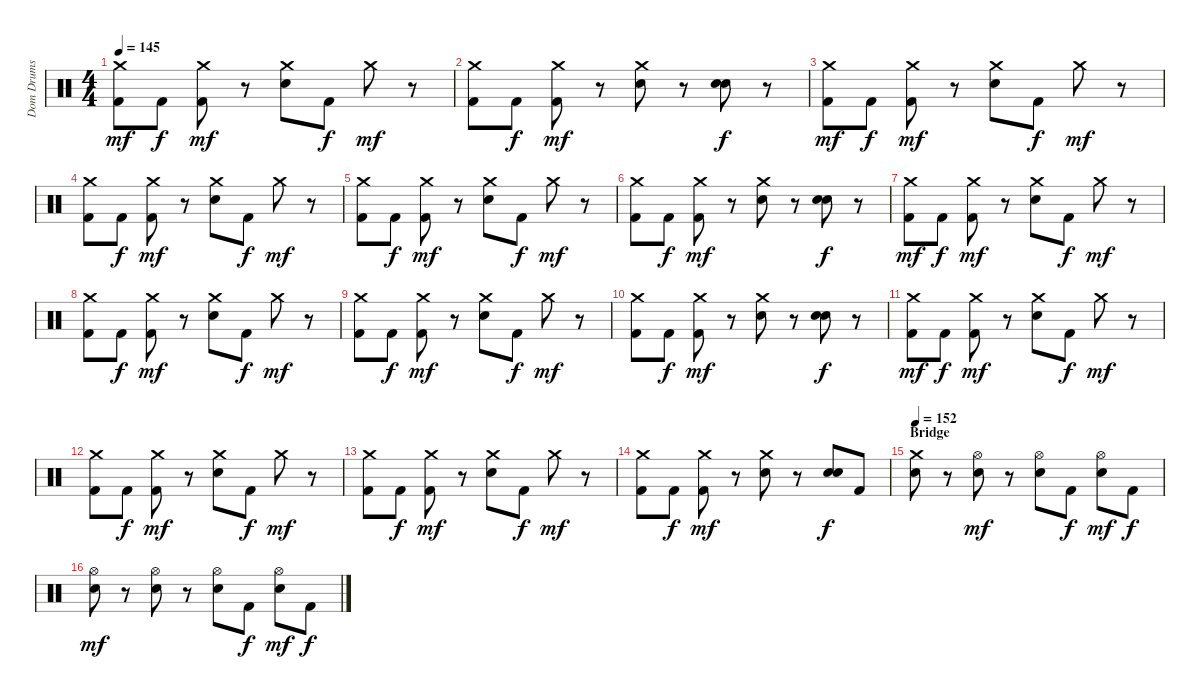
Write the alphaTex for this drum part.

\track ("Dom Drums" "Dom Drums") {instrument percussion}
\staff {score}
\articulation defaults
\ts (4 4)
\tempo 145
\clef neutral
\ks c
("Crash medium (hit)" "Kick (hit) 2").8{dy mf} "Kick (hit) 2".8{dy f} ("Crash medium (hit)" "Kick (hit) 2").8{dy mf} r.8 ("Crash medium (hit)" "Snare (hit) 2").8 "Kick (hit) 2".8{dy f} "Crash medium (hit)".8{dy mf} r.8 |
("Crash medium (hit)" "Kick (hit) 2").8 "Kick (hit) 2".8{dy f} ("Crash medium (hit)" "Kick (hit) 2").8{dy mf} r.8 ("Crash medium (hit)" "Snare (hit) 2").8 r.8 ("Snare (hit) 2" "Snare (hit) 2").8{dy f} r.8 |
("Crash medium (hit)" "Kick (hit) 2").8{dy mf} "Kick (hit) 2".8{dy f} ("Crash medium (hit)" "Kick (hit) 2").8{dy mf} r.8 ("Crash medium (hit)" "Snare (hit) 2").8 "Kick (hit) 2".8{dy f} "Crash medium (hit)".8{dy mf} r.8 |
("Crash medium (hit)" "Kick (hit) 2").8 "Kick (hit) 2".8{dy f} ("Crash medium (hit)" "Kick (hit) 2").8{dy mf} r.8 ("Crash medium (hit)" "Snare (hit) 2").8 "Kick (hit) 2".8{dy f} "Crash medium (hit)".8{dy mf} r.8 |
("Crash medium (hit)" "Kick (hit) 2").8 "Kick (hit) 2".8{dy f} ("Crash medium (hit)" "Kick (hit) 2").8{dy mf} r.8 ("Crash medium (hit)" "Snare (hit) 2").8 "Kick (hit) 2".8{dy f} "Crash medium (hit)".8{dy mf} r.8 |
("Crash medium (hit)" "Kick (hit) 2").8 "Kick (hit) 2".8{dy f} ("Crash medium (hit)" "Kick (hit) 2").8{dy mf} r.8 ("Crash medium (hit)" "Snare (hit) 2").8 r.8 ("Snare (hit) 2" "Snare (hit) 2").8{dy f} r.8 |
("Crash medium (hit)" "Kick (hit) 2").8{dy mf} "Kick (hit) 2".8{dy f} ("Crash medium (hit)" "Kick (hit) 2").8{dy mf} r.8 ("Crash medium (hit)" "Snare (hit) 2").8 "Kick (hit) 2".8{dy f} "Crash medium (hit)".8{dy mf} r.8 |
("Crash medium (hit)" "Kick (hit) 2").8 "Kick (hit) 2".8{dy f} ("Crash medium (hit)" "Kick (hit) 2").8{dy mf} r.8 ("Crash medium (hit)" "Snare (hit) 2").8 "Kick (hit) 2".8{dy f} "Crash medium (hit)".8{dy mf} r.8 |
("Crash medium (hit)" "Kick (hit) 2").8 "Kick (hit) 2".8{dy f} ("Crash medium (hit)" "Kick (hit) 2").8{dy mf} r.8 ("Crash medium (hit)" "Snare (hit) 2").8 "Kick (hit) 2".8{dy f} "Crash medium (hit)".8{dy mf} r.8 |
("Crash medium (hit)" "Kick (hit) 2").8 "Kick (hit) 2".8{dy f} ("Crash medium (hit)" "Kick (hit) 2").8{dy mf} r.8 ("Crash medium (hit)" "Snare (hit) 2").8 r.8 ("Snare (hit) 2" "Snare (hit) 2").8{dy f} r.8 |
("Crash medium (hit)" "Kick (hit) 2").8{dy mf} "Kick (hit) 2".8{dy f} ("Crash medium (hit)" "Kick (hit) 2").8{dy mf} r.8 ("Crash medium (hit)" "Snare (hit) 2").8 "Kick (hit) 2".8{dy f} "Crash medium (hit)".8{dy mf} r.8 |
("Crash medium (hit)" "Kick (hit) 2").8 "Kick (hit) 2".8{dy f} ("Crash medium (hit)" "Kick (hit) 2").8{dy mf} r.8 ("Crash medium (hit)" "Snare (hit) 2").8 "Kick (hit) 2".8{dy f} "Crash medium (hit)".8{dy mf} r.8 |
("Crash medium (hit)" "Kick (hit) 2").8 "Kick (hit) 2".8{dy f} ("Crash medium (hit)" "Kick (hit) 2").8{dy mf} r.8 ("Crash medium (hit)" "Snare (hit) 2").8 "Kick (hit) 2".8{dy f} "Crash medium (hit)".8{dy mf} r.8 |
("Crash medium (hit)" "Kick (hit) 2").8 "Kick (hit) 2".8{dy f} ("Crash medium (hit)" "Kick (hit) 2").8{dy mf} r.8 ("Crash medium (hit)" "Snare (hit) 2").8 r.8 ("Snare (hit) 2" "Snare (hit) 2").8{dy f} "Kick (hit) 2".8 |
\section ("" "Bridge")
\tempo 152
("Crash medium (hit)" "Snare (hit) 2").8 r.8 ("Hi-Hat (open)" "Snare (hit) 2").8{dy mf} r.8 ("Hi-Hat (open)" "Snare (hit) 2").8 "Kick (hit) 2".8{dy f} ("Hi-Hat (open)" "Snare (hit) 2").8{dy mf} "Kick (hit) 2".8{dy f} |
("Hi-Hat (open)" "Snare (hit) 2").8{dy mf} r.8 ("Hi-Hat (open)" "Snare (hit) 2").8 r.8 ("Hi-Hat (open)" "Snare (hit) 2").8 "Kick (hit) 2".8{dy f} ("Hi-Hat (open)" "Snare (hit) 2").8{dy mf} "Kick (hit) 2".8{dy f}
